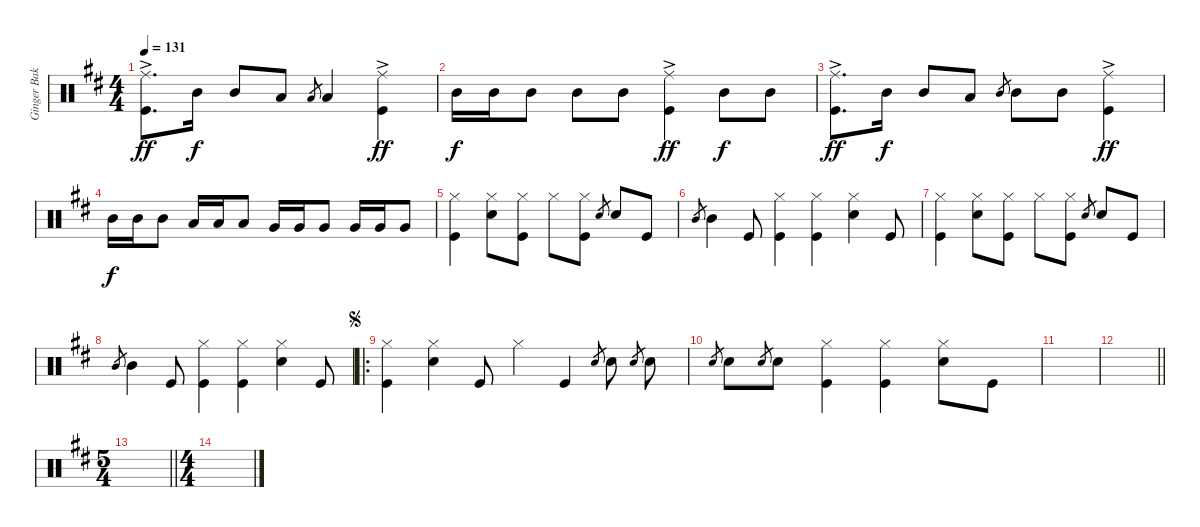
\track ("Ginger Baker" "Ginger Bak") {instrument percussion}
\staff {score}
\articulation defaults
\ts (4 4)
\tempo 131
\clef neutral
\ks d
("Ride (middle)"{ac} "Kick (hit)").8{d dy ff} "Mid Tom (hit)".16{dy f} "Mid Tom (hit)".8 "Low Tom (hit)".8 "Low Tom (hit)".8{gr} "Low Tom (hit)".4 ("Ride (middle)"{ac} "Kick (hit)").4{dy ff} |
"Mid Tom (hit)".16{dy f} "Mid Tom (hit)".16 "Mid Tom (hit)".8 "Mid Tom (hit)".8 "Mid Tom (hit)".8 ("Ride (middle)"{ac} "Kick (hit)").4{dy ff} "Mid Tom (hit)".8{dy f} "Mid Tom (hit)".8 |
("Ride (middle)"{ac} "Kick (hit)").8{d dy ff} "Mid Tom (hit)".16{dy f} "Mid Tom (hit)".8 "Low Tom (hit)".8 "Mid Tom (hit)".8{gr} "Mid Tom (hit)".8 "Mid Tom (hit)".8 ("Ride (middle)"{ac} "Kick (hit)").4{dy ff} |
"Mid Tom (hit)".16{dy f} "Mid Tom (hit)".16 "Mid Tom (hit)".8 "Low Tom (hit)".16 "Low Tom (hit)".16 "Low Tom (hit)".8 "Very Low Tom (hit)".16 "Very Low Tom (hit)".16 "Very Low Tom (hit)".8 "Very Low Tom (hit)".16 "Very Low Tom (hit)".16 "Very Low Tom (hit)".8 |
("Hi-Hat (closed)" "Kick (hit)").4 ("Snare (hit) 2" "Hi-Hat (closed)").8 ("Hi-Hat (closed)" "Kick (hit)").8 "Hi-Hat (closed)".8 ("Hi-Hat (closed)" "Kick (hit)").8 "Snare (hit) 2".8{gr} "Snare (hit) 2".8 "Kick (hit)".8 |
"Mid Tom (hit)".8{gr} "Mid Tom (hit)".4 "Kick (hit)".8 ("Hi-Hat (closed)" "Kick (hit)").4 ("Hi-Hat (closed)" "Kick (hit)").4 ("Hi-Hat (closed)" "Snare (hit) 2").4 "Kick (hit)".8 |
("Hi-Hat (closed)" "Kick (hit)").4 ("Snare (hit) 2" "Hi-Hat (closed)").8 ("Hi-Hat (closed)" "Kick (hit)").8 "Hi-Hat (closed)".8 ("Hi-Hat (closed)" "Kick (hit)").8 "Snare (hit) 2".8{gr} "Snare (hit) 2".8 "Kick (hit)".8 |
"Mid Tom (hit)".8{gr} "Mid Tom (hit)".4 "Kick (hit)".8 ("Hi-Hat (closed)" "Kick (hit)").4 ("Hi-Hat (closed)" "Kick (hit)").4 ("Hi-Hat (closed)" "Snare (hit) 2").4 "Kick (hit)".8 |
\ro
\jump segno
("Hi-Hat (closed)" "Kick (hit)").4 ("Hi-Hat (closed)" "Snare (hit) 2").4 "Kick (hit)".8 "Hi-Hat (closed)".4 "Kick (hit)".4 "Snare (hit) 2".8{gr} "Snare (hit) 2".8 "Snare (hit) 2".8{gr} "Snare (hit) 2".8 |
"Snare (hit) 2".8{gr} "Snare (hit) 2".8 "Snare (hit) 2".8{gr} "Snare (hit) 2".8 ("Hi-Hat (closed)" "Kick (hit)").4 ("Hi-Hat (closed)" "Kick (hit)").4 ("Hi-Hat (closed)" "Snare (hit) 2").8 "Kick (hit)".8 |
|
\barLineRight lightlight
|
\ts (5 4)
\barLineRight lightlight
|
\ts (4 4)
